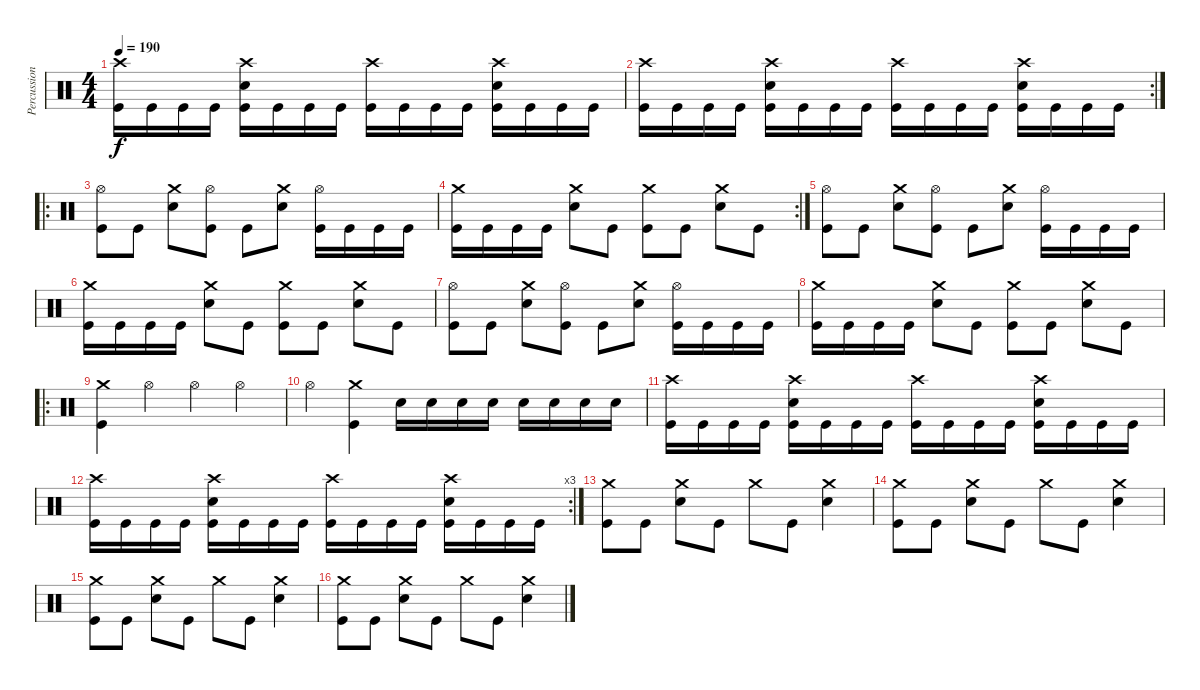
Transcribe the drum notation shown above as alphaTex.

\track ("Percussion" "Percussion") {instrument percussion}
\staff {score}
\articulation defaults
\ts (4 4)
\tempo 190
\clef neutral
\ks c
("Crash high (hit)" "Kick (hit)").16{dy f} "Kick (hit)".16 "Kick (hit)".16 "Kick (hit)".16 ("Crash high (hit)" "Snare (hit) 2" "Kick (hit)").16 "Kick (hit)".16 "Kick (hit)".16 "Kick (hit)".16 ("Crash high (hit)" "Kick (hit)").16 "Kick (hit)".16 "Kick (hit)".16 "Kick (hit)".16 ("Crash high (hit)" "Snare (hit) 2" "Kick (hit)").16 "Kick (hit)".16 "Kick (hit)".16 "Kick (hit)".16 |
\rc 2
("Crash high (hit)" "Kick (hit)").16 "Kick (hit)".16 "Kick (hit)".16 "Kick (hit)".16 ("Crash high (hit)" "Snare (hit) 2" "Kick (hit)").16 "Kick (hit)".16 "Kick (hit)".16 "Kick (hit)".16 ("Crash high (hit)" "Kick (hit)").16 "Kick (hit)".16 "Kick (hit)".16 "Kick (hit)".16 ("Crash high (hit)" "Snare (hit) 2" "Kick (hit)").16 "Kick (hit)".16 "Kick (hit)".16 "Kick (hit)".16 |
\ro
("Hi-Hat (open)" "Kick (hit)").8 "Kick (hit)".8 ("Crash medium (hit)" "Snare (hit) 2").8 ("Hi-Hat (open)" "Kick (hit)").8 "Kick (hit)".8 ("Crash medium (hit)" "Snare (hit) 2").8 ("Hi-Hat (open)" "Kick (hit)").16 "Kick (hit)".16 "Kick (hit)".16 "Kick (hit)".16 |
\rc 2
("Crash medium (hit)" "Kick (hit)").16 "Kick (hit)".16 "Kick (hit)".16 "Kick (hit)".16 ("Crash medium (hit)" "Snare (hit) 2").8 "Kick (hit)".8 ("Crash medium (hit)" "Kick (hit)").8 "Kick (hit)".8 ("Crash medium (hit)" "Snare (hit) 2").8 "Kick (hit)".8 |
("Hi-Hat (open)" "Kick (hit)").8 "Kick (hit)".8 ("Crash medium (hit)" "Snare (hit) 2").8 ("Hi-Hat (open)" "Kick (hit)").8 "Kick (hit)".8 ("Crash medium (hit)" "Snare (hit) 2").8 ("Hi-Hat (open)" "Kick (hit)").16 "Kick (hit)".16 "Kick (hit)".16 "Kick (hit)".16 |
("Crash medium (hit)" "Kick (hit)").16 "Kick (hit)".16 "Kick (hit)".16 "Kick (hit)".16 ("Crash medium (hit)" "Snare (hit) 2").8 "Kick (hit)".8 ("Crash medium (hit)" "Kick (hit)").8 "Kick (hit)".8 ("Crash medium (hit)" "Snare (hit) 2").8 "Kick (hit)".8 |
("Hi-Hat (open)" "Kick (hit)").8 "Kick (hit)".8 ("Crash medium (hit)" "Snare (hit) 2").8 ("Hi-Hat (open)" "Kick (hit)").8 "Kick (hit)".8 ("Crash medium (hit)" "Snare (hit) 2").8 ("Hi-Hat (open)" "Kick (hit)").16 "Kick (hit)".16 "Kick (hit)".16 "Kick (hit)".16 |
("Crash medium (hit)" "Kick (hit)").16 "Kick (hit)".16 "Kick (hit)".16 "Kick (hit)".16 ("Crash medium (hit)" "Snare (hit) 2").8 "Kick (hit)".8 ("Crash medium (hit)" "Kick (hit)").8 "Kick (hit)".8 ("Crash medium (hit)" "Snare (hit) 2").8 "Kick (hit)".8 |
\ro
("Crash medium (hit)" "Kick (hit)").4 "Hi-Hat (open)".4 "Hi-Hat (open)".4 "Hi-Hat (open)".4 |
"Hi-Hat (open)".4 ("Crash medium (hit)" "Kick (hit)").4 "Snare (hit) 2".16 "Snare (hit) 2".16 "Snare (hit) 2".16 "Snare (hit) 2".16 "Snare (hit) 2".16 "Snare (hit) 2".16 "Snare (hit) 2".16 "Snare (hit) 2".16 |
("Crash high (hit)" "Kick (hit)").16 "Kick (hit)".16 "Kick (hit)".16 "Kick (hit)".16 ("Crash high (hit)" "Snare (hit) 2" "Kick (hit)").16 "Kick (hit)".16 "Kick (hit)".16 "Kick (hit)".16 ("Crash high (hit)" "Kick (hit)").16 "Kick (hit)".16 "Kick (hit)".16 "Kick (hit)".16 ("Crash high (hit)" "Snare (hit) 2" "Kick (hit)").16 "Kick (hit)".16 "Kick (hit)".16 "Kick (hit)".16 |
\rc 3
("Crash high (hit)" "Kick (hit)").16 "Kick (hit)".16 "Kick (hit)".16 "Kick (hit)".16 ("Crash high (hit)" "Snare (hit) 2" "Kick (hit)").16 "Kick (hit)".16 "Kick (hit)".16 "Kick (hit)".16 ("Crash high (hit)" "Kick (hit)").16 "Kick (hit)".16 "Kick (hit)".16 "Kick (hit)".16 ("Crash high (hit)" "Snare (hit) 2" "Kick (hit)").16 "Kick (hit)".16 "Kick (hit)".16 "Kick (hit)".16 |
("Crash medium (hit)" "Kick (hit)").8 "Kick (hit)".8 ("Crash medium (hit)" "Snare (hit) 2").8 "Kick (hit)".8 "Crash medium (hit)".8 "Kick (hit)".8 ("Crash medium (hit)" "Snare (hit) 2").4 |
("Crash medium (hit)" "Kick (hit)").8 "Kick (hit)".8 ("Crash medium (hit)" "Snare (hit) 2").8 "Kick (hit)".8 "Crash medium (hit)".8 "Kick (hit)".8 ("Crash medium (hit)" "Snare (hit) 2").4 |
("Crash medium (hit)" "Kick (hit)").8 "Kick (hit)".8 ("Crash medium (hit)" "Snare (hit) 2").8 "Kick (hit)".8 "Crash medium (hit)".8 "Kick (hit)".8 ("Crash medium (hit)" "Snare (hit) 2").4 |
("Crash medium (hit)" "Kick (hit)").8 "Kick (hit)".8 ("Crash medium (hit)" "Snare (hit) 2").8 "Kick (hit)".8 "Crash medium (hit)".8 "Kick (hit)".8 ("Crash medium (hit)" "Snare (hit) 2").4
